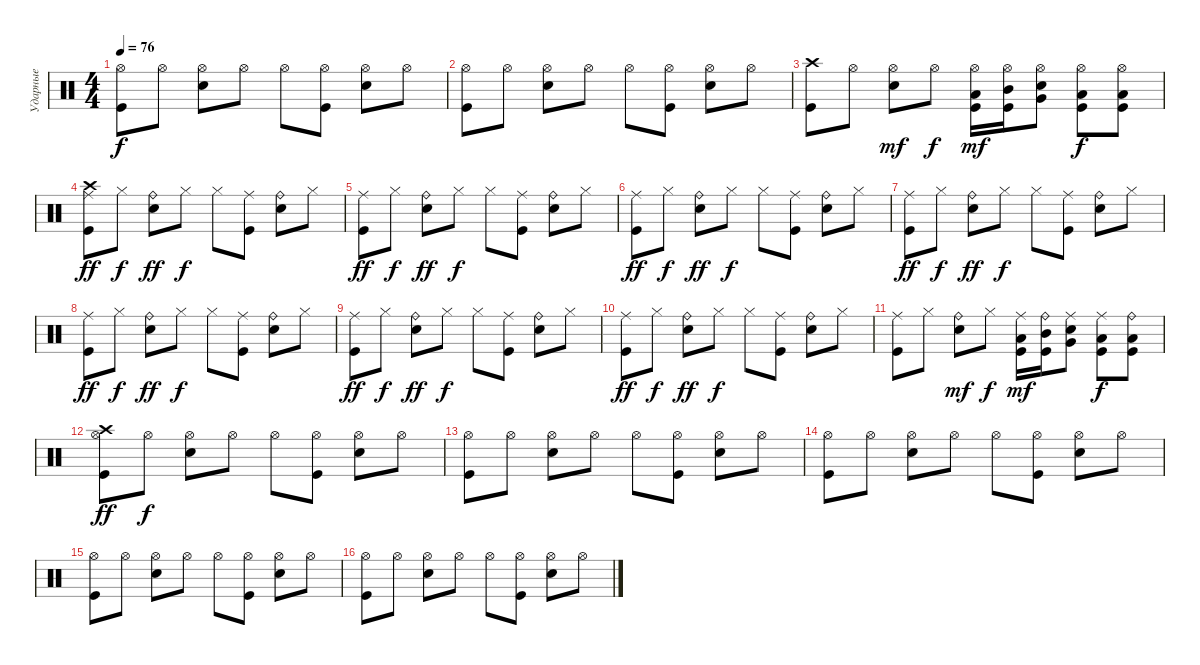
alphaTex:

\track ("Ударные" "Ударные") {instrument percussion}
\staff {score}
\articulation defaults
\ts (4 4)
\tempo 76
\clef neutral
\ks c
("Hi-Hat (open)" "Kick (hit)").8{dy f} "Hi-Hat (open)".8 ("Hi-Hat (open)" "Electric Snare (hit)").8 "Hi-Hat (open)".8 "Hi-Hat (open)".8 ("Hi-Hat (open)" "Kick (hit)").8 ("Hi-Hat (open)" "Electric Snare (hit)").8 "Hi-Hat (open)".8 |
("Hi-Hat (open)" "Kick (hit)").8 "Hi-Hat (open)".8 ("Hi-Hat (open)" "Electric Snare (hit)").8 "Hi-Hat (open)".8 "Hi-Hat (open)".8 ("Hi-Hat (open)" "Kick (hit)").8 ("Hi-Hat (open)" "Electric Snare (hit)").8 "Hi-Hat (open)".8 |
("Kick (hit)" "Crash high (hit)").8 "Hi-Hat (open)".8 ("Electric Snare (hit)" "Hi-Hat (open)").8{dy mf} "Hi-Hat (open)".8{dy f} ("Kick (hit)" "Hi-Hat (open)" "Low Tom (hit)").16{dy mf} ("Kick (hit)" "Hi-Hat (open)" "Mid Tom (hit)").16 ("Electric Snare (hit)" "Hi-Hat (open)" "Very Low Tom (hit)").8 ("Kick (hit)" "Hi-Hat (open)" "Low Floor Tom (hit)").8{dy f} ("Kick (hit)" "Hi-Hat (open)" "Low Floor Tom (hit)").8 |
("Ride (middle)" "Kick (hit)" "Crash high (hit)").8{dy ff} "Hi-Hat (closed)".8{dy f} ("Ride (bell)" "Electric Snare (hit)").8{dy ff} "Hi-Hat (closed)".8{dy f} "Hi-Hat (closed)".8 ("Ride (middle)" "Kick (hit)").8 ("Ride (bell)" "Electric Snare (hit)").8 "Hi-Hat (closed)".8 |
("Ride (middle)" "Kick (hit)").8{dy ff} "Hi-Hat (closed)".8{dy f} ("Ride (bell)" "Electric Snare (hit)").8{dy ff} "Hi-Hat (closed)".8{dy f} "Hi-Hat (closed)".8 ("Ride (middle)" "Kick (hit)").8 ("Ride (bell)" "Electric Snare (hit)").8 "Hi-Hat (closed)".8 |
("Ride (middle)" "Kick (hit)").8{dy ff} "Hi-Hat (closed)".8{dy f} ("Ride (bell)" "Electric Snare (hit)").8{dy ff} "Hi-Hat (closed)".8{dy f} "Hi-Hat (closed)".8 ("Ride (middle)" "Kick (hit)").8 ("Ride (bell)" "Electric Snare (hit)").8 "Hi-Hat (closed)".8 |
("Ride (middle)" "Kick (hit)").8{dy ff} "Hi-Hat (closed)".8{dy f} ("Ride (bell)" "Electric Snare (hit)").8{dy ff} "Hi-Hat (closed)".8{dy f} "Hi-Hat (closed)".8 ("Ride (middle)" "Kick (hit)").8 ("Ride (bell)" "Electric Snare (hit)").8 "Hi-Hat (closed)".8 |
("Ride (middle)" "Kick (hit)").8{dy ff} "Hi-Hat (closed)".8{dy f} ("Ride (bell)" "Electric Snare (hit)").8{dy ff} "Hi-Hat (closed)".8{dy f} "Hi-Hat (closed)".8 ("Ride (middle)" "Kick (hit)").8 ("Ride (bell)" "Electric Snare (hit)").8 "Hi-Hat (closed)".8 |
("Ride (middle)" "Kick (hit)").8{dy ff} "Hi-Hat (closed)".8{dy f} ("Ride (bell)" "Electric Snare (hit)").8{dy ff} "Hi-Hat (closed)".8{dy f} "Hi-Hat (closed)".8 ("Ride (middle)" "Kick (hit)").8 ("Ride (bell)" "Electric Snare (hit)").8 "Hi-Hat (closed)".8 |
("Ride (middle)" "Kick (hit)").8{dy ff} "Hi-Hat (closed)".8{dy f} ("Ride (bell)" "Electric Snare (hit)").8{dy ff} "Hi-Hat (closed)".8{dy f} "Hi-Hat (closed)".8 ("Ride (middle)" "Kick (hit)").8 ("Ride (bell)" "Electric Snare (hit)").8 "Hi-Hat (closed)".8 |
("Kick (hit)" "Ride (middle)").8 "Hi-Hat (closed)".8 ("Electric Snare (hit)" "Ride (bell)").8{dy mf} "Hi-Hat (closed)".8{dy f} ("Kick (hit)" "Ride (middle)" "Low Tom (hit)").16{dy mf} ("Kick (hit)" "Ride (bell)" "Mid Tom (hit)").16 ("Electric Snare (hit)" "Ride (middle)" "Very Low Tom (hit)").8 ("Kick (hit)" "Ride (middle)" "Low Floor Tom (hit)").8{dy f} ("Kick (hit)" "Ride (bell)" "Low Floor Tom (hit)").8 |
("Hi-Hat (open)" "Kick (hit)" "Crash high (hit)").8{dy ff} "Hi-Hat (open)".8{dy f} ("Hi-Hat (open)" "Electric Snare (hit)").8 "Hi-Hat (open)".8 "Hi-Hat (open)".8 ("Hi-Hat (open)" "Kick (hit)").8 ("Hi-Hat (open)" "Electric Snare (hit)").8 "Hi-Hat (open)".8 |
("Hi-Hat (open)" "Kick (hit)").8 "Hi-Hat (open)".8 ("Hi-Hat (open)" "Electric Snare (hit)").8 "Hi-Hat (open)".8 "Hi-Hat (open)".8 ("Hi-Hat (open)" "Kick (hit)").8 ("Hi-Hat (open)" "Electric Snare (hit)").8 "Hi-Hat (open)".8 |
("Hi-Hat (open)" "Kick (hit)").8 "Hi-Hat (open)".8 ("Hi-Hat (open)" "Electric Snare (hit)").8 "Hi-Hat (open)".8 "Hi-Hat (open)".8 ("Hi-Hat (open)" "Kick (hit)").8 ("Hi-Hat (open)" "Electric Snare (hit)").8 "Hi-Hat (open)".8 |
("Hi-Hat (open)" "Kick (hit)").8 "Hi-Hat (open)".8 ("Hi-Hat (open)" "Electric Snare (hit)").8 "Hi-Hat (open)".8 "Hi-Hat (open)".8 ("Hi-Hat (open)" "Kick (hit)").8 ("Hi-Hat (open)" "Electric Snare (hit)").8 "Hi-Hat (open)".8 |
("Hi-Hat (open)" "Kick (hit)").8 "Hi-Hat (open)".8 ("Hi-Hat (open)" "Electric Snare (hit)").8 "Hi-Hat (open)".8 "Hi-Hat (open)".8 ("Hi-Hat (open)" "Kick (hit)").8 ("Hi-Hat (open)" "Electric Snare (hit)").8 "Hi-Hat (open)".8
